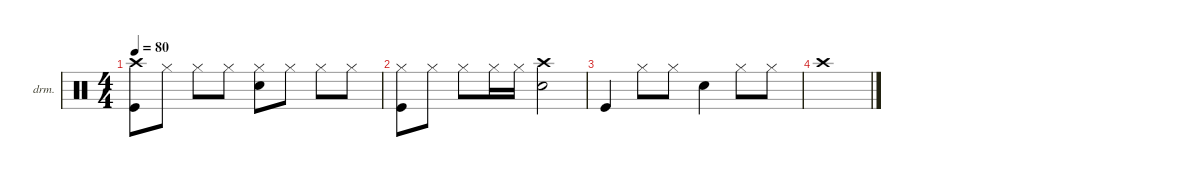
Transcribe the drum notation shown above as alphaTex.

\defaultSystemsLayout 4
\hideDynamics
\bracketExtendMode groupsimilarinstruments
\firstSystemTrackNameOrientation horizontal
\otherSystemsTrackNameOrientation horizontal
\chordDiagramsInScore
\track ("drum" "drm.") {instrument percussion}
\staff {score}
\articulation defaults
\ts (4 4)
\tempo 80
\clef neutral
\ks c
("Crash high (hit)" "Kick (hit)").8{dy f} "Hi-Hat (closed)".8 "Hi-Hat (closed)".8 "Hi-Hat (closed)".8 ("Hi-Hat (closed)" "Snare (hit) 2").8 "Hi-Hat (closed)".8 "Hi-Hat (closed)".8 "Hi-Hat (closed)".8 |
("Hi-Hat (closed)" "Kick (hit)").8 "Hi-Hat (closed)".8 "Hi-Hat (closed)".8 "Hi-Hat (closed)".16 "Hi-Hat (closed)".16 ("Crash high (hit)" "Snare (hit) 2").2 |
"Kick (hit)".4 "Hi-Hat (closed)".8 "Hi-Hat (closed)".8 "Snare (hit) 2".4 "Hi-Hat (closed)".8 "Hi-Hat (closed)".8 |
"Crash high (hit)".1
